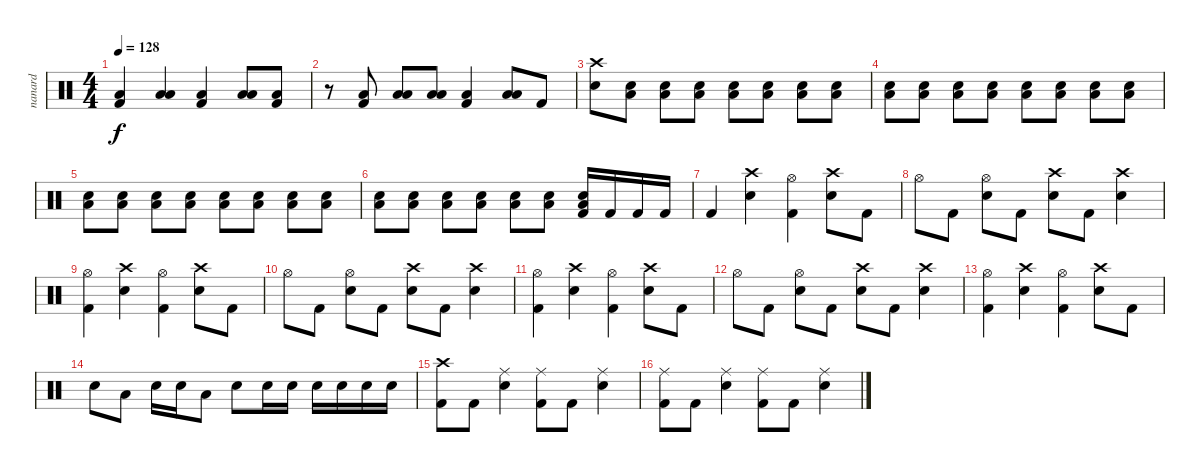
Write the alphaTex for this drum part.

\track ("nanard" "nanard") {instrument percussion}
\staff {score}
\articulation defaults
\ts (4 4)
\tempo 128
\clef neutral
\ks c
("Low Floor Tom (hit)" "Kick (hit) 2").4{dy f} ("Low Tom (hit)" "Low Floor Tom (hit)").4 ("Low Floor Tom (hit)" "Kick (hit) 2").4 ("Low Tom (hit)" "Low Floor Tom (hit)").8 ("Low Floor Tom (hit)" "Kick (hit) 2").8 |
r.8 ("Low Floor Tom (hit)" "Kick (hit) 2").8 ("Low Tom (hit)" "Low Floor Tom (hit)").8 ("Low Tom (hit)" "Low Floor Tom (hit)").8 ("Low Floor Tom (hit)" "Kick (hit) 2").4 ("Low Tom (hit)" "Low Floor Tom (hit)").8 "Kick (hit) 2".8 |
("Crash high (hit)" "Electric Snare (hit)").8 ("Electric Snare (hit)" "Low Floor Tom (hit)").8 ("Electric Snare (hit)" "Low Floor Tom (hit)").8 ("Electric Snare (hit)" "Low Floor Tom (hit)").8 ("Electric Snare (hit)" "Low Floor Tom (hit)").8 ("Electric Snare (hit)" "Low Floor Tom (hit)").8 ("Electric Snare (hit)" "Low Floor Tom (hit)").8 ("Electric Snare (hit)" "Low Floor Tom (hit)").8 |
("Electric Snare (hit)" "Low Floor Tom (hit)").8 ("Electric Snare (hit)" "Low Floor Tom (hit)").8 ("Electric Snare (hit)" "Low Floor Tom (hit)").8 ("Electric Snare (hit)" "Low Floor Tom (hit)").8 ("Electric Snare (hit)" "Low Floor Tom (hit)").8 ("Electric Snare (hit)" "Low Floor Tom (hit)").8 ("Electric Snare (hit)" "Low Floor Tom (hit)").8 ("Electric Snare (hit)" "Low Floor Tom (hit)").8 |
("Electric Snare (hit)" "Low Floor Tom (hit)").8 ("Electric Snare (hit)" "Low Floor Tom (hit)").8 ("Electric Snare (hit)" "Low Floor Tom (hit)").8 ("Electric Snare (hit)" "Low Floor Tom (hit)").8 ("Electric Snare (hit)" "Low Floor Tom (hit)").8 ("Electric Snare (hit)" "Low Floor Tom (hit)").8 ("Electric Snare (hit)" "Low Floor Tom (hit)").8 ("Electric Snare (hit)" "Low Floor Tom (hit)").8 |
("Electric Snare (hit)" "Low Floor Tom (hit)").8 ("Electric Snare (hit)" "Low Floor Tom (hit)").8 ("Electric Snare (hit)" "Low Floor Tom (hit)").8 ("Electric Snare (hit)" "Low Floor Tom (hit)").8 ("Electric Snare (hit)" "Low Floor Tom (hit)").8 ("Electric Snare (hit)" "Low Floor Tom (hit)").8 ("Electric Snare (hit)" "Low Floor Tom (hit)" "Kick (hit) 2").16 "Kick (hit) 2".16 "Kick (hit) 2".16 "Kick (hit) 2".16 |
"Kick (hit) 2".4 ("Crash high (hit)" "Electric Snare (hit)").4 ("Hi-Hat (open)" "Kick (hit) 2").4 ("Crash high (hit)" "Electric Snare (hit)").8 "Kick (hit) 2".8 |
"Hi-Hat (open)".8 "Kick (hit) 2".8 ("Hi-Hat (open)" "Electric Snare (hit)").8 "Kick (hit) 2".8 ("Crash high (hit)" "Electric Snare (hit)").8 "Kick (hit) 2".8 ("Crash high (hit)" "Electric Snare (hit)").4 |
("Hi-Hat (open)" "Kick (hit) 2").4 ("Crash high (hit)" "Electric Snare (hit)").4 ("Hi-Hat (open)" "Kick (hit) 2").4 ("Crash high (hit)" "Electric Snare (hit)").8 "Kick (hit) 2".8 |
"Hi-Hat (open)".8 "Kick (hit) 2".8 ("Hi-Hat (open)" "Electric Snare (hit)").8 "Kick (hit) 2".8 ("Crash high (hit)" "Electric Snare (hit)").8 "Kick (hit) 2".8 ("Crash high (hit)" "Electric Snare (hit)").4 |
("Hi-Hat (open)" "Kick (hit) 2").4 ("Crash high (hit)" "Electric Snare (hit)").4 ("Hi-Hat (open)" "Kick (hit) 2").4 ("Crash high (hit)" "Electric Snare (hit)").8 "Kick (hit) 2".8 |
"Hi-Hat (open)".8 "Kick (hit) 2".8 ("Hi-Hat (open)" "Electric Snare (hit)").8 "Kick (hit) 2".8 ("Crash high (hit)" "Electric Snare (hit)").8 "Kick (hit) 2".8 ("Crash high (hit)" "Electric Snare (hit)").4 |
("Hi-Hat (open)" "Kick (hit) 2").4 ("Crash high (hit)" "Electric Snare (hit)").4 ("Hi-Hat (open)" "Kick (hit) 2").4 ("Crash high (hit)" "Electric Snare (hit)").8 "Kick (hit) 2".8 |
"Electric Snare (hit)".8 "Low Tom (hit)".8 "Electric Snare (hit)".16 "Electric Snare (hit)".16 "Low Tom (hit)".8 "Electric Snare (hit)".8 "Electric Snare (hit)".16 "Electric Snare (hit)".16 "Electric Snare (hit)".16 "Electric Snare (hit)".16 "Electric Snare (hit)".16 "Electric Snare (hit)".16 |
("Crash high (hit)" "Kick (hit) 2").8 "Kick (hit) 2".8 ("Ride (middle)" "Electric Snare (hit)").4 ("Ride (middle)" "Kick (hit) 2").8 "Kick (hit) 2".8 ("Ride (middle)" "Electric Snare (hit)").4 |
("Ride (middle)" "Kick (hit) 2").8 "Kick (hit) 2".8 ("Ride (middle)" "Electric Snare (hit)").4 ("Ride (middle)" "Kick (hit) 2").8 "Kick (hit) 2".8 ("Ride (middle)" "Electric Snare (hit)").4
